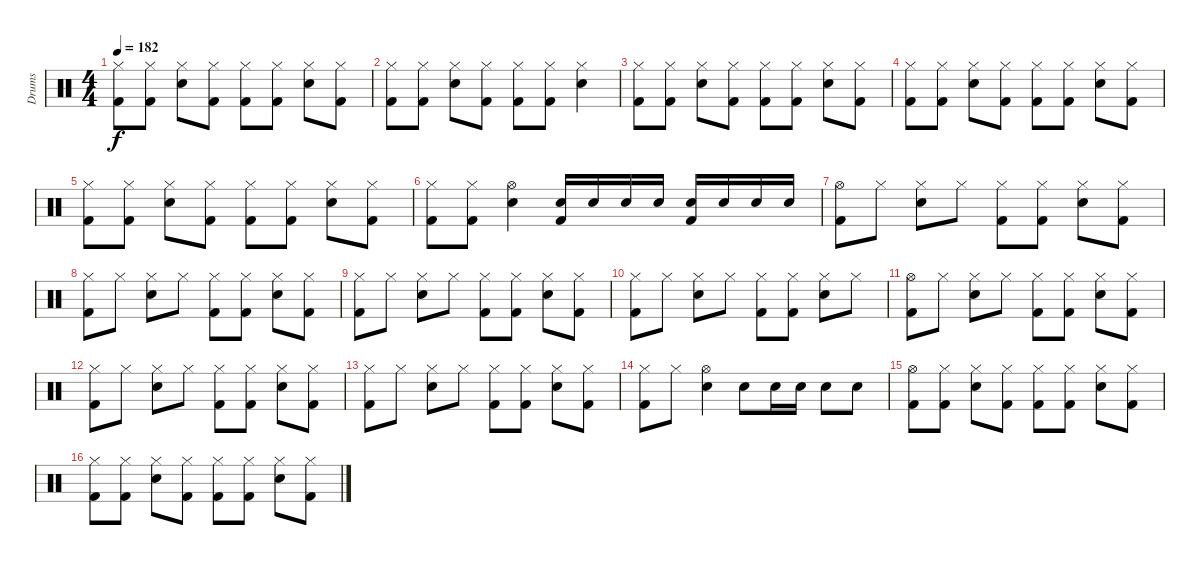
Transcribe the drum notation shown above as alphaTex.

\track ("Drums" "Drums") {instrument percussion}
\staff {score}
\articulation defaults
\ts (4 4)
\tempo 182
\clef neutral
\ks c
("Kick (hit) 2" "Hi-Hat (closed)").8{dy f} ("Kick (hit) 2" "Hi-Hat (closed)").8 ("Snare (hit) 2" "Hi-Hat (closed)").8 ("Kick (hit) 2" "Hi-Hat (closed)").8 ("Kick (hit) 2" "Hi-Hat (closed)").8 ("Kick (hit) 2" "Hi-Hat (closed)").8 ("Snare (hit) 2" "Hi-Hat (closed)").8 ("Kick (hit) 2" "Hi-Hat (closed)").8 |
("Kick (hit) 2" "Hi-Hat (closed)").8 ("Kick (hit) 2" "Hi-Hat (closed)").8 ("Snare (hit) 2" "Hi-Hat (closed)").8 ("Kick (hit) 2" "Hi-Hat (closed)").8 ("Kick (hit) 2" "Hi-Hat (closed)").8 ("Kick (hit) 2" "Hi-Hat (closed)").8 ("Hi-Hat (closed)" "Snare (hit) 2").4 |
("Kick (hit) 2" "Hi-Hat (closed)").8 ("Kick (hit) 2" "Hi-Hat (closed)").8 ("Snare (hit) 2" "Hi-Hat (closed)").8 ("Kick (hit) 2" "Hi-Hat (closed)").8 ("Kick (hit) 2" "Hi-Hat (closed)").8 ("Kick (hit) 2" "Hi-Hat (closed)").8 ("Snare (hit) 2" "Hi-Hat (closed)").8 ("Kick (hit) 2" "Hi-Hat (closed)").8 |
("Kick (hit) 2" "Hi-Hat (closed)").8 ("Kick (hit) 2" "Hi-Hat (closed)").8 ("Snare (hit) 2" "Hi-Hat (closed)").8 ("Kick (hit) 2" "Hi-Hat (closed)").8 ("Kick (hit) 2" "Hi-Hat (closed)").8 ("Kick (hit) 2" "Hi-Hat (closed)").8 ("Snare (hit) 2" "Hi-Hat (closed)").8 ("Kick (hit) 2" "Hi-Hat (closed)").8 |
("Kick (hit) 2" "Hi-Hat (closed)").8 ("Kick (hit) 2" "Hi-Hat (closed)").8 ("Snare (hit) 2" "Hi-Hat (closed)").8 ("Kick (hit) 2" "Hi-Hat (closed)").8 ("Kick (hit) 2" "Hi-Hat (closed)").8 ("Kick (hit) 2" "Hi-Hat (closed)").8 ("Snare (hit) 2" "Hi-Hat (closed)").8 ("Kick (hit) 2" "Hi-Hat (closed)").8 |
("Kick (hit) 2" "Hi-Hat (closed)").8 ("Kick (hit) 2" "Hi-Hat (closed)").8 ("Snare (hit) 2" "Hi-Hat (open)").4 ("Snare (hit) 2" "Kick (hit) 2").16 "Snare (hit) 2".16 "Snare (hit) 2".16 "Snare (hit) 2".16 ("Snare (hit) 2" "Kick (hit) 2").16 "Snare (hit) 2".16 "Snare (hit) 2".16 "Snare (hit) 2".16 |
("Kick (hit) 2" "Hi-Hat (open)").8 "Hi-Hat (closed)".8 ("Snare (hit) 2" "Hi-Hat (closed)").8 "Hi-Hat (closed)".8 ("Kick (hit) 2" "Hi-Hat (closed)").8 ("Kick (hit) 2" "Hi-Hat (closed)").8 ("Snare (hit) 2" "Hi-Hat (closed)").8 ("Kick (hit) 2" "Hi-Hat (closed)").8 |
("Kick (hit) 2" "Hi-Hat (closed)").8 "Hi-Hat (closed)".8 ("Snare (hit) 2" "Hi-Hat (closed)").8 "Hi-Hat (closed)".8 ("Kick (hit) 2" "Hi-Hat (closed)").8 ("Kick (hit) 2" "Hi-Hat (closed)").8 ("Snare (hit) 2" "Hi-Hat (closed)").8 ("Kick (hit) 2" "Hi-Hat (closed)").8 |
("Kick (hit) 2" "Hi-Hat (closed)").8 "Hi-Hat (closed)".8 ("Snare (hit) 2" "Hi-Hat (closed)").8 "Hi-Hat (closed)".8 ("Kick (hit) 2" "Hi-Hat (closed)").8 ("Kick (hit) 2" "Hi-Hat (closed)").8 ("Snare (hit) 2" "Hi-Hat (closed)").8 ("Kick (hit) 2" "Hi-Hat (closed)").8 |
("Kick (hit) 2" "Hi-Hat (closed)").8 "Hi-Hat (closed)".8 ("Snare (hit) 2" "Hi-Hat (closed)").8 "Hi-Hat (closed)".8 ("Kick (hit) 2" "Hi-Hat (closed)").8 ("Kick (hit) 2" "Hi-Hat (closed)").8 ("Snare (hit) 2" "Hi-Hat (closed)").8 "Hi-Hat (closed)".8 |
("Kick (hit) 2" "Hi-Hat (open)").8 "Hi-Hat (closed)".8 ("Snare (hit) 2" "Hi-Hat (closed)").8 "Hi-Hat (closed)".8 ("Kick (hit) 2" "Hi-Hat (closed)").8 ("Kick (hit) 2" "Hi-Hat (closed)").8 ("Snare (hit) 2" "Hi-Hat (closed)").8 ("Kick (hit) 2" "Hi-Hat (closed)").8 |
("Kick (hit) 2" "Hi-Hat (closed)").8 "Hi-Hat (closed)".8 ("Snare (hit) 2" "Hi-Hat (closed)").8 "Hi-Hat (closed)".8 ("Kick (hit) 2" "Hi-Hat (closed)").8 ("Kick (hit) 2" "Hi-Hat (closed)").8 ("Snare (hit) 2" "Hi-Hat (closed)").8 ("Kick (hit) 2" "Hi-Hat (closed)").8 |
("Kick (hit) 2" "Hi-Hat (closed)").8 "Hi-Hat (closed)".8 ("Snare (hit) 2" "Hi-Hat (closed)").8 "Hi-Hat (closed)".8 ("Kick (hit) 2" "Hi-Hat (closed)").8 ("Kick (hit) 2" "Hi-Hat (closed)").8 ("Snare (hit) 2" "Hi-Hat (closed)").8 ("Kick (hit) 2" "Hi-Hat (closed)").8 |
("Kick (hit) 2" "Hi-Hat (closed)").8 "Hi-Hat (closed)".8 ("Snare (hit) 2" "Hi-Hat (open)").4 "Snare (hit) 2".8 "Snare (hit) 2".16 "Snare (hit) 2".16 "Snare (hit) 2".8 "Snare (hit) 2".8 |
("Kick (hit) 2" "Hi-Hat (open)").8 ("Kick (hit) 2" "Hi-Hat (closed)").8 ("Snare (hit) 2" "Hi-Hat (closed)").8 ("Kick (hit) 2" "Hi-Hat (closed)").8 ("Kick (hit) 2" "Hi-Hat (closed)").8 ("Kick (hit) 2" "Hi-Hat (closed)").8 ("Snare (hit) 2" "Hi-Hat (closed)").8 ("Kick (hit) 2" "Hi-Hat (closed)").8 |
("Kick (hit) 2" "Hi-Hat (closed)").8 ("Kick (hit) 2" "Hi-Hat (closed)").8 ("Snare (hit) 2" "Hi-Hat (closed)").8 ("Kick (hit) 2" "Hi-Hat (closed)").8 ("Kick (hit) 2" "Hi-Hat (closed)").8 ("Kick (hit) 2" "Hi-Hat (closed)").8 ("Snare (hit) 2" "Hi-Hat (closed)").8 ("Kick (hit) 2" "Hi-Hat (closed)").8
